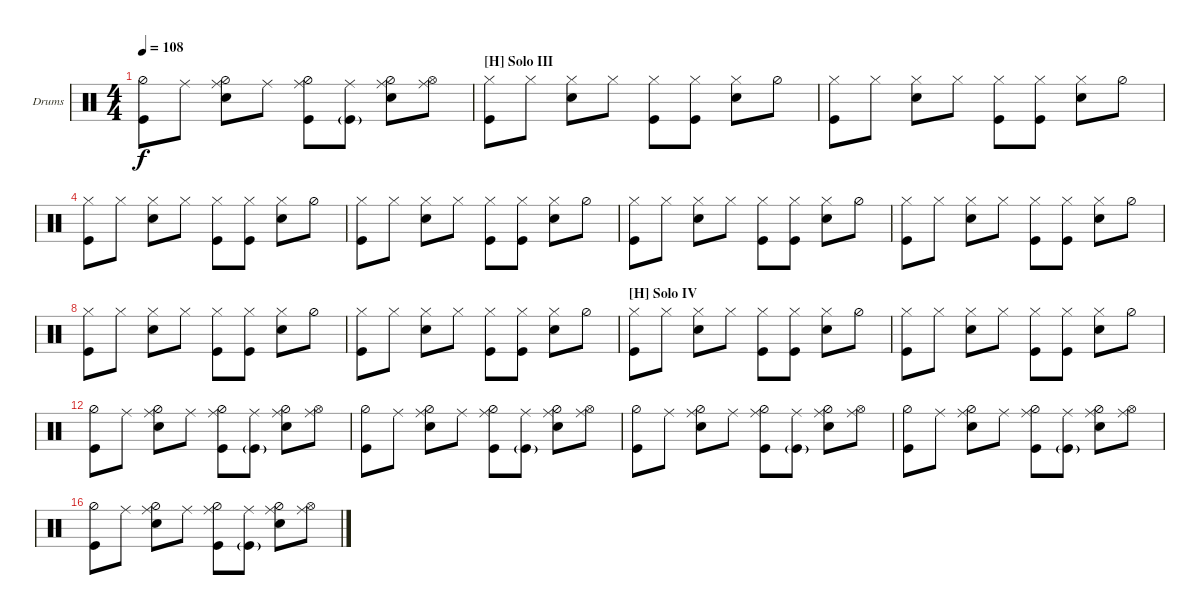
\defaultSystemsLayout 4
\bracketExtendMode nobrackets
\firstSystemTrackNameOrientation horizontal
\otherSystemsTrackNameOrientation horizontal
\defaultBarNumberDisplay FirstOfSystem
\track ("Drumkit" "Drums") {instrument percussion}
\staff {score}
\articulation defaults
\ts (4 4)
\tempo 108
\clef neutral
\ks c
("Kick (hit)" "Hi-Hat (half)").8{dy f} "Ride (middle)".8 ("Snare (hit) 2" "Hi-Hat (half)" "Ride (middle)").8 "Ride (middle)".8 ("Kick (hit)" "Hi-Hat (half)" "Ride (middle)").8 ("Kick (hit)"{g} "Ride (middle)").8 ("Snare (hit) 2" "Hi-Hat (half)" "Ride (middle)").8 ("Hi-Hat (open)" "Ride (middle)").8 |
\section ("H" "Solo III")
("Kick (hit)" "Hi-Hat (closed)").8 "Hi-Hat (closed)".8 ("Snare (hit) 2" "Hi-Hat (closed)").8 "Hi-Hat (closed)".8 ("Kick (hit)" "Hi-Hat (closed)").8 ("Hi-Hat (closed)" "Kick (hit)").8 ("Snare (hit) 2" "Hi-Hat (closed)").8 "Hi-Hat (half)".8 |
("Kick (hit)" "Hi-Hat (closed)").8 "Hi-Hat (closed)".8 ("Snare (hit) 2" "Hi-Hat (closed)").8 "Hi-Hat (closed)".8 ("Kick (hit)" "Hi-Hat (closed)").8 ("Hi-Hat (closed)" "Kick (hit)").8 ("Snare (hit) 2" "Hi-Hat (closed)").8 "Hi-Hat (half)".8 |
("Kick (hit)" "Hi-Hat (closed)").8 "Hi-Hat (closed)".8 ("Snare (hit) 2" "Hi-Hat (closed)").8 "Hi-Hat (closed)".8 ("Hi-Hat (closed)" "Kick (hit)").8 ("Hi-Hat (closed)" "Kick (hit)").8 ("Snare (hit) 2" "Hi-Hat (closed)").8 "Hi-Hat (half)".8 |
("Kick (hit)" "Hi-Hat (closed)").8 "Hi-Hat (closed)".8 ("Snare (hit) 2" "Hi-Hat (closed)").8 "Hi-Hat (closed)".8 ("Kick (hit)" "Hi-Hat (closed)").8 ("Hi-Hat (closed)" "Kick (hit)").8 ("Snare (hit) 2" "Hi-Hat (closed)").8 "Hi-Hat (half)".8 |
("Kick (hit)" "Hi-Hat (closed)").8 "Hi-Hat (closed)".8 ("Snare (hit) 2" "Hi-Hat (closed)").8 "Hi-Hat (closed)".8 ("Hi-Hat (closed)" "Kick (hit)").8 ("Hi-Hat (closed)" "Kick (hit)").8 ("Snare (hit) 2" "Hi-Hat (closed)").8 "Hi-Hat (half)".8 |
("Kick (hit)" "Hi-Hat (closed)").8 "Hi-Hat (closed)".8 ("Snare (hit) 2" "Hi-Hat (closed)").8 "Hi-Hat (closed)".8 ("Kick (hit)" "Hi-Hat (closed)").8 ("Hi-Hat (closed)" "Kick (hit)").8 ("Snare (hit) 2" "Hi-Hat (closed)").8 "Hi-Hat (half)".8 |
("Kick (hit)" "Hi-Hat (closed)").8 "Hi-Hat (closed)".8 ("Snare (hit) 2" "Hi-Hat (closed)").8 "Hi-Hat (closed)".8 ("Hi-Hat (closed)" "Kick (hit)").8 ("Hi-Hat (closed)" "Kick (hit)").8 ("Snare (hit) 2" "Hi-Hat (closed)").8 "Hi-Hat (half)".8 |
("Kick (hit)" "Hi-Hat (closed)").8 "Hi-Hat (closed)".8 ("Snare (hit) 2" "Hi-Hat (closed)").8 "Hi-Hat (closed)".8 ("Hi-Hat (closed)" "Kick (hit)").8 ("Hi-Hat (closed)" "Kick (hit)").8 ("Snare (hit) 2" "Hi-Hat (closed)").8 "Hi-Hat (half)".8 |
\section ("H" "Solo IV")
("Kick (hit)" "Hi-Hat (closed)").8 "Hi-Hat (closed)".8 ("Snare (hit) 2" "Hi-Hat (closed)").8 "Hi-Hat (closed)".8 ("Hi-Hat (closed)" "Kick (hit)").8 ("Hi-Hat (closed)" "Kick (hit)").8 ("Snare (hit) 2" "Hi-Hat (closed)").8 "Hi-Hat (half)".8 |
("Kick (hit)" "Hi-Hat (closed)").8 "Hi-Hat (closed)".8 ("Snare (hit) 2" "Hi-Hat (closed)").8 "Hi-Hat (closed)".8 ("Hi-Hat (closed)" "Kick (hit)").8 ("Hi-Hat (closed)" "Kick (hit)").8 ("Snare (hit) 2" "Hi-Hat (closed)").8 "Hi-Hat (half)".8 |
("Kick (hit)" "Hi-Hat (half)").8 "Ride (middle)".8 ("Snare (hit) 2" "Hi-Hat (half)" "Ride (middle)").8 "Ride (middle)".8 ("Kick (hit)" "Hi-Hat (half)" "Ride (middle)").8 ("Kick (hit)"{g} "Ride (middle)").8 ("Snare (hit) 2" "Hi-Hat (half)" "Ride (middle)").8 ("Hi-Hat (open)" "Ride (middle)").8 |
("Kick (hit)" "Hi-Hat (half)").8 "Ride (middle)".8 ("Snare (hit) 2" "Hi-Hat (half)" "Ride (middle)").8 "Ride (middle)".8 ("Kick (hit)" "Hi-Hat (half)" "Ride (middle)").8 ("Kick (hit)"{g} "Ride (middle)").8 ("Snare (hit) 2" "Hi-Hat (half)" "Ride (middle)").8 ("Hi-Hat (open)" "Ride (middle)").8 |
("Kick (hit)" "Hi-Hat (half)").8 "Ride (middle)".8 ("Snare (hit) 2" "Hi-Hat (half)" "Ride (middle)").8 "Ride (middle)".8 ("Kick (hit)" "Hi-Hat (half)" "Ride (middle)").8 ("Kick (hit)"{g} "Ride (middle)").8 ("Snare (hit) 2" "Hi-Hat (half)" "Ride (middle)").8 ("Hi-Hat (open)" "Ride (middle)").8 |
("Kick (hit)" "Hi-Hat (half)").8 "Ride (middle)".8 ("Snare (hit) 2" "Hi-Hat (half)" "Ride (middle)").8 "Ride (middle)".8 ("Kick (hit)" "Hi-Hat (half)" "Ride (middle)").8 ("Kick (hit)"{g} "Ride (middle)").8 ("Snare (hit) 2" "Hi-Hat (half)" "Ride (middle)").8 ("Hi-Hat (open)" "Ride (middle)").8 |
("Kick (hit)" "Hi-Hat (half)").8 "Ride (middle)".8 ("Snare (hit) 2" "Hi-Hat (half)" "Ride (middle)").8 "Ride (middle)".8 ("Kick (hit)" "Hi-Hat (half)" "Ride (middle)").8 ("Kick (hit)"{g} "Ride (middle)").8 ("Snare (hit) 2" "Hi-Hat (half)" "Ride (middle)").8 ("Hi-Hat (open)" "Ride (middle)").8
